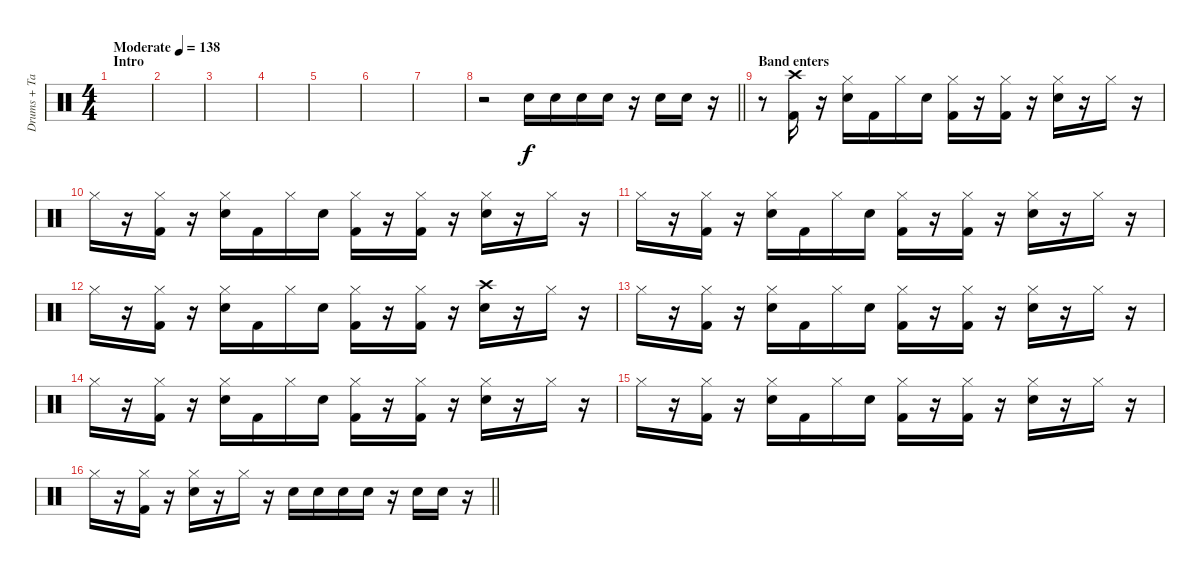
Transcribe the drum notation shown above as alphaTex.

\track ("Drums + Tambourine" "Drums + Ta") {instrument percussion}
\staff {score}
\articulation defaults
\ts (4 4)
\section ("" "Intro")
\tempo (138 "Moderate")
\clef neutral
\ks c
|
|
|
|
|
|
|
\barLineRight lightlight
r.2 "Electric Snare (hit)".16 "Electric Snare (hit)".16 "Electric Snare (hit)".16 "Electric Snare (hit)".16 r.16 "Electric Snare (hit)".16 "Electric Snare (hit)".16 r.16 |
\section ("" "Band enters")
r.8 ("Crash high (hit)" "Kick (hit) 2").16 r.16 ("Hi-Hat (closed)" "Electric Snare (hit)").16 "Kick (hit) 2".16 "Hi-Hat (closed)".16 "Electric Snare (hit)".16 ("Hi-Hat (closed)" "Kick (hit) 2").16 r.16 ("Hi-Hat (closed)" "Kick (hit) 2").16 r.16 ("Hi-Hat (closed)" "Electric Snare (hit)").16 r.16 "Hi-Hat (closed)".16 r.16 |
"Hi-Hat (closed)".16 r.16 ("Hi-Hat (closed)" "Kick (hit) 2").16 r.16 ("Hi-Hat (closed)" "Electric Snare (hit)").16 "Kick (hit) 2".16 "Hi-Hat (closed)".16 "Electric Snare (hit)".16 ("Hi-Hat (closed)" "Kick (hit) 2").16 r.16 ("Hi-Hat (closed)" "Kick (hit) 2").16 r.16 ("Hi-Hat (closed)" "Electric Snare (hit)").16 r.16 "Hi-Hat (closed)".16 r.16 |
"Hi-Hat (closed)".16 r.16 ("Hi-Hat (closed)" "Kick (hit) 2").16 r.16 ("Hi-Hat (closed)" "Electric Snare (hit)").16 "Kick (hit) 2".16 "Hi-Hat (closed)".16 "Electric Snare (hit)".16 ("Hi-Hat (closed)" "Kick (hit) 2").16 r.16 ("Hi-Hat (closed)" "Kick (hit) 2").16 r.16 ("Hi-Hat (closed)" "Electric Snare (hit)").16 r.16 "Hi-Hat (closed)".16 r.16 |
"Hi-Hat (closed)".16 r.16 ("Hi-Hat (closed)" "Kick (hit) 2").16 r.16 ("Hi-Hat (closed)" "Electric Snare (hit)").16 "Kick (hit) 2".16 "Hi-Hat (closed)".16 "Electric Snare (hit)".16 ("Hi-Hat (closed)" "Kick (hit) 2").16 r.16 ("Hi-Hat (closed)" "Kick (hit) 2").16 r.16 ("Crash high (hit)" "Electric Snare (hit)").16 r.16 "Hi-Hat (closed)".16 r.16 |
"Hi-Hat (closed)".16 r.16 ("Hi-Hat (closed)" "Kick (hit) 2").16 r.16 ("Hi-Hat (closed)" "Electric Snare (hit)").16 "Kick (hit) 2".16 "Hi-Hat (closed)".16 "Electric Snare (hit)".16 ("Hi-Hat (closed)" "Kick (hit) 2").16 r.16 ("Hi-Hat (closed)" "Kick (hit) 2").16 r.16 ("Hi-Hat (closed)" "Electric Snare (hit)").16 r.16 "Hi-Hat (closed)".16 r.16 |
"Hi-Hat (closed)".16 r.16 ("Hi-Hat (closed)" "Kick (hit) 2").16 r.16 ("Hi-Hat (closed)" "Electric Snare (hit)").16 "Kick (hit) 2".16 "Hi-Hat (closed)".16 "Electric Snare (hit)".16 ("Hi-Hat (closed)" "Kick (hit) 2").16 r.16 ("Hi-Hat (closed)" "Kick (hit) 2").16 r.16 ("Hi-Hat (closed)" "Electric Snare (hit)").16 r.16 "Hi-Hat (closed)".16 r.16 |
"Hi-Hat (closed)".16 r.16 ("Hi-Hat (closed)" "Kick (hit) 2").16 r.16 ("Hi-Hat (closed)" "Electric Snare (hit)").16 "Kick (hit) 2".16 "Hi-Hat (closed)".16 "Electric Snare (hit)".16 ("Hi-Hat (closed)" "Kick (hit) 2").16 r.16 ("Hi-Hat (closed)" "Kick (hit) 2").16 r.16 ("Hi-Hat (closed)" "Electric Snare (hit)").16 r.16 "Hi-Hat (closed)".16 r.16 |
\barLineRight lightlight "Hi-Hat (closed)".16
r.16 ("Hi-Hat (closed)" "Kick (hit) 2").16 r.16 ("Hi-Hat (closed)" "Electric Snare (hit)").16 r.16 "Hi-Hat (closed)".16 r.16 "Electric Snare (hit)".16 "Electric Snare (hit)".16 "Electric Snare (hit)".16 "Electric Snare (hit)".16 r.16 "Electric Snare (hit)".16 "Electric Snare (hit)".16 r.16
